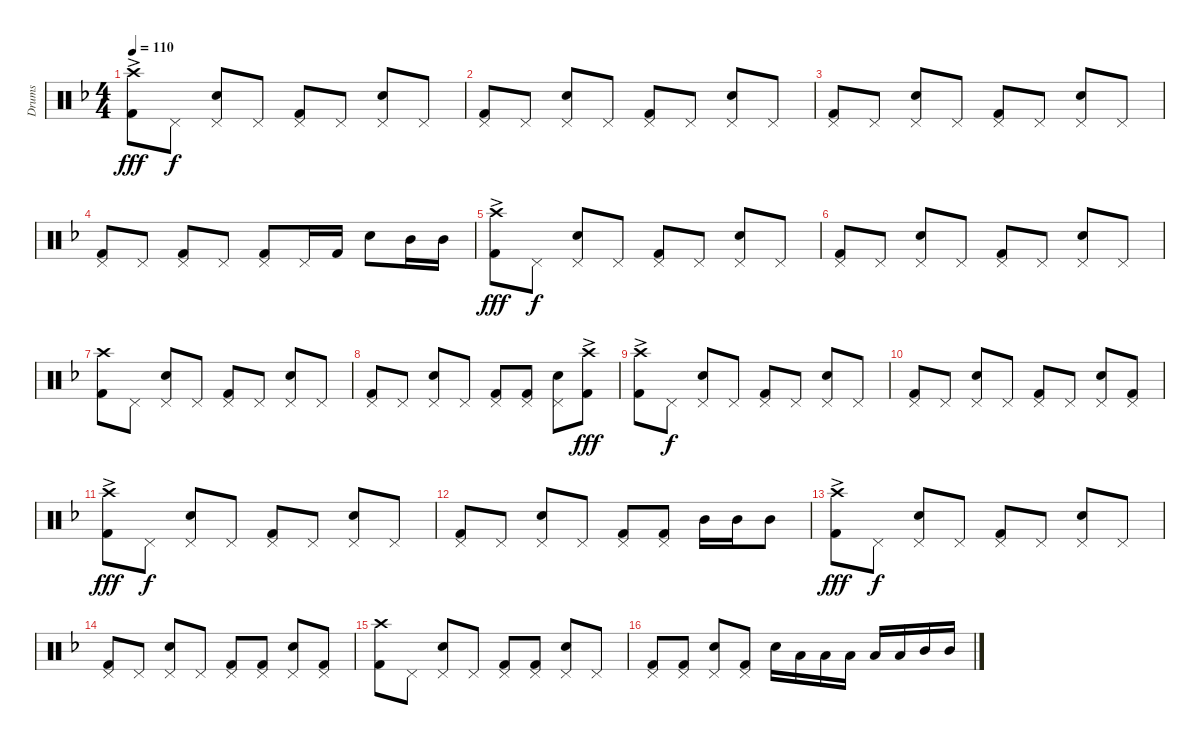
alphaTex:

\track ("Drums" "Drums") {instrument percussion}
\staff {score}
\articulation defaults
\ts (4 4)
\tempo 110
\clef neutral
\ks f
("Kick (hit) 2" "Crash high (hit)"{ac}).8{dy fff} "Pedal Hi-Hat (hit)".8{dy f} ("Snare (hit) 2" "Pedal Hi-Hat (hit)").8 "Pedal Hi-Hat (hit)".8 ("Kick (hit) 2" "Pedal Hi-Hat (hit)").8 "Pedal Hi-Hat (hit)".8 ("Snare (hit) 2" "Pedal Hi-Hat (hit)").8 "Pedal Hi-Hat (hit)".8 |
("Kick (hit) 2" "Pedal Hi-Hat (hit)").8 "Pedal Hi-Hat (hit)".8 ("Snare (hit) 2" "Pedal Hi-Hat (hit)").8 "Pedal Hi-Hat (hit)".8 ("Kick (hit) 2" "Pedal Hi-Hat (hit)").8 "Pedal Hi-Hat (hit)".8 ("Snare (hit) 2" "Pedal Hi-Hat (hit)").8 "Pedal Hi-Hat (hit)".8 |
("Kick (hit) 2" "Pedal Hi-Hat (hit)").8 "Pedal Hi-Hat (hit)".8 ("Snare (hit) 2" "Pedal Hi-Hat (hit)").8 "Pedal Hi-Hat (hit)".8 ("Kick (hit) 2" "Pedal Hi-Hat (hit)").8 "Pedal Hi-Hat (hit)".8 ("Snare (hit) 2" "Pedal Hi-Hat (hit)").8 "Pedal Hi-Hat (hit)".8 |
("Kick (hit) 2" "Pedal Hi-Hat (hit)").8 "Pedal Hi-Hat (hit)".8 ("Kick (hit) 2" "Pedal Hi-Hat (hit)").8 "Pedal Hi-Hat (hit)".8 ("Kick (hit) 2" "Pedal Hi-Hat (hit)").8 "Pedal Hi-Hat (hit)".16 "Kick (hit) 2".16 "Snare (hit) 2".8 "Mid Tom (hit)".16 "Mid Tom (hit)".16 |
("Kick (hit) 2" "Crash high (hit)"{ac}).8{dy fff} "Pedal Hi-Hat (hit)".8{dy f} ("Snare (hit) 2" "Pedal Hi-Hat (hit)").8 "Pedal Hi-Hat (hit)".8 ("Kick (hit) 2" "Pedal Hi-Hat (hit)").8 "Pedal Hi-Hat (hit)".8 ("Snare (hit) 2" "Pedal Hi-Hat (hit)").8 "Pedal Hi-Hat (hit)".8 |
("Kick (hit) 2" "Pedal Hi-Hat (hit)").8 "Pedal Hi-Hat (hit)".8 ("Snare (hit) 2" "Pedal Hi-Hat (hit)").8 "Pedal Hi-Hat (hit)".8 ("Kick (hit) 2" "Pedal Hi-Hat (hit)").8 "Pedal Hi-Hat (hit)".8 ("Snare (hit) 2" "Pedal Hi-Hat (hit)").8 "Pedal Hi-Hat (hit)".8 |
("Kick (hit) 2" "Crash high (hit)").8 "Pedal Hi-Hat (hit)".8 ("Snare (hit) 2" "Pedal Hi-Hat (hit)").8 "Pedal Hi-Hat (hit)".8 ("Kick (hit) 2" "Pedal Hi-Hat (hit)").8 "Pedal Hi-Hat (hit)".8 ("Snare (hit) 2" "Pedal Hi-Hat (hit)").8 "Pedal Hi-Hat (hit)".8 |
("Kick (hit) 2" "Pedal Hi-Hat (hit)").8 "Pedal Hi-Hat (hit)".8 ("Snare (hit) 2" "Pedal Hi-Hat (hit)").8 "Pedal Hi-Hat (hit)".8 ("Kick (hit) 2" "Pedal Hi-Hat (hit)").8 ("Kick (hit) 2" "Pedal Hi-Hat (hit)").8 ("Snare (hit) 2" "Pedal Hi-Hat (hit)").8 ("Kick (hit) 2" "Crash high (hit)"{ac}).8{dy fff} |
("Kick (hit) 2" "Crash high (hit)"{ac}).8 "Pedal Hi-Hat (hit)".8{dy f} ("Snare (hit) 2" "Pedal Hi-Hat (hit)").8 "Pedal Hi-Hat (hit)".8 ("Kick (hit) 2" "Pedal Hi-Hat (hit)").8 "Pedal Hi-Hat (hit)".8 ("Snare (hit) 2" "Pedal Hi-Hat (hit)").8 "Pedal Hi-Hat (hit)".8 |
("Kick (hit) 2" "Pedal Hi-Hat (hit)").8 "Pedal Hi-Hat (hit)".8 ("Snare (hit) 2" "Pedal Hi-Hat (hit)").8 "Pedal Hi-Hat (hit)".8 ("Kick (hit) 2" "Pedal Hi-Hat (hit)").8 "Pedal Hi-Hat (hit)".8 ("Snare (hit) 2" "Pedal Hi-Hat (hit)").8 ("Kick (hit) 2" "Pedal Hi-Hat (hit)").8 |
("Kick (hit) 2" "Crash high (hit)"{ac}).8{dy fff} "Pedal Hi-Hat (hit)".8{dy f} ("Snare (hit) 2" "Pedal Hi-Hat (hit)").8 "Pedal Hi-Hat (hit)".8 ("Kick (hit) 2" "Pedal Hi-Hat (hit)").8 "Pedal Hi-Hat (hit)".8 ("Snare (hit) 2" "Pedal Hi-Hat (hit)").8 "Pedal Hi-Hat (hit)".8 |
("Kick (hit) 2" "Pedal Hi-Hat (hit)").8 "Pedal Hi-Hat (hit)".8 ("Snare (hit) 2" "Pedal Hi-Hat (hit)").8 "Pedal Hi-Hat (hit)".8 ("Kick (hit) 2" "Pedal Hi-Hat (hit)").8 ("Kick (hit) 2" "Pedal Hi-Hat (hit)").8 "Mid Tom (hit)".16 "Mid Tom (hit)".16 "Mid Tom (hit)".8 |
("Kick (hit) 2" "Crash high (hit)"{ac}).8{dy fff} "Pedal Hi-Hat (hit)".8{dy f} ("Snare (hit) 2" "Pedal Hi-Hat (hit)").8 "Pedal Hi-Hat (hit)".8 ("Kick (hit) 2" "Pedal Hi-Hat (hit)").8 "Pedal Hi-Hat (hit)".8 ("Snare (hit) 2" "Pedal Hi-Hat (hit)").8 "Pedal Hi-Hat (hit)".8 |
("Kick (hit) 2" "Pedal Hi-Hat (hit)").8 "Pedal Hi-Hat (hit)".8 ("Snare (hit) 2" "Pedal Hi-Hat (hit)").8 "Pedal Hi-Hat (hit)".8 ("Kick (hit) 2" "Pedal Hi-Hat (hit)").8 ("Kick (hit) 2" "Pedal Hi-Hat (hit)").8 ("Snare (hit) 2" "Pedal Hi-Hat (hit)").8 ("Kick (hit) 2" "Pedal Hi-Hat (hit)").8 |
("Kick (hit) 2" "Crash high (hit)").8 "Pedal Hi-Hat (hit)".8 ("Snare (hit) 2" "Pedal Hi-Hat (hit)").8 "Pedal Hi-Hat (hit)".8 ("Kick (hit) 2" "Pedal Hi-Hat (hit)").8 ("Kick (hit) 2" "Pedal Hi-Hat (hit)").8 ("Snare (hit) 2" "Pedal Hi-Hat (hit)").8 "Pedal Hi-Hat (hit)".8 |
("Kick (hit) 2" "Pedal Hi-Hat (hit)").8 ("Kick (hit) 2" "Pedal Hi-Hat (hit)").8 ("Snare (hit) 2" "Pedal Hi-Hat (hit)").8 ("Kick (hit) 2" "Pedal Hi-Hat (hit)").8 "Snare (hit) 2".16 "Low Floor Tom (hit)".16 "Low Floor Tom (hit)".16 "Low Floor Tom (hit)".16 "Low Tom (hit)".16 "Low Tom (hit)".16 "Mid Tom (hit)".16 "Mid Tom (hit)".16
